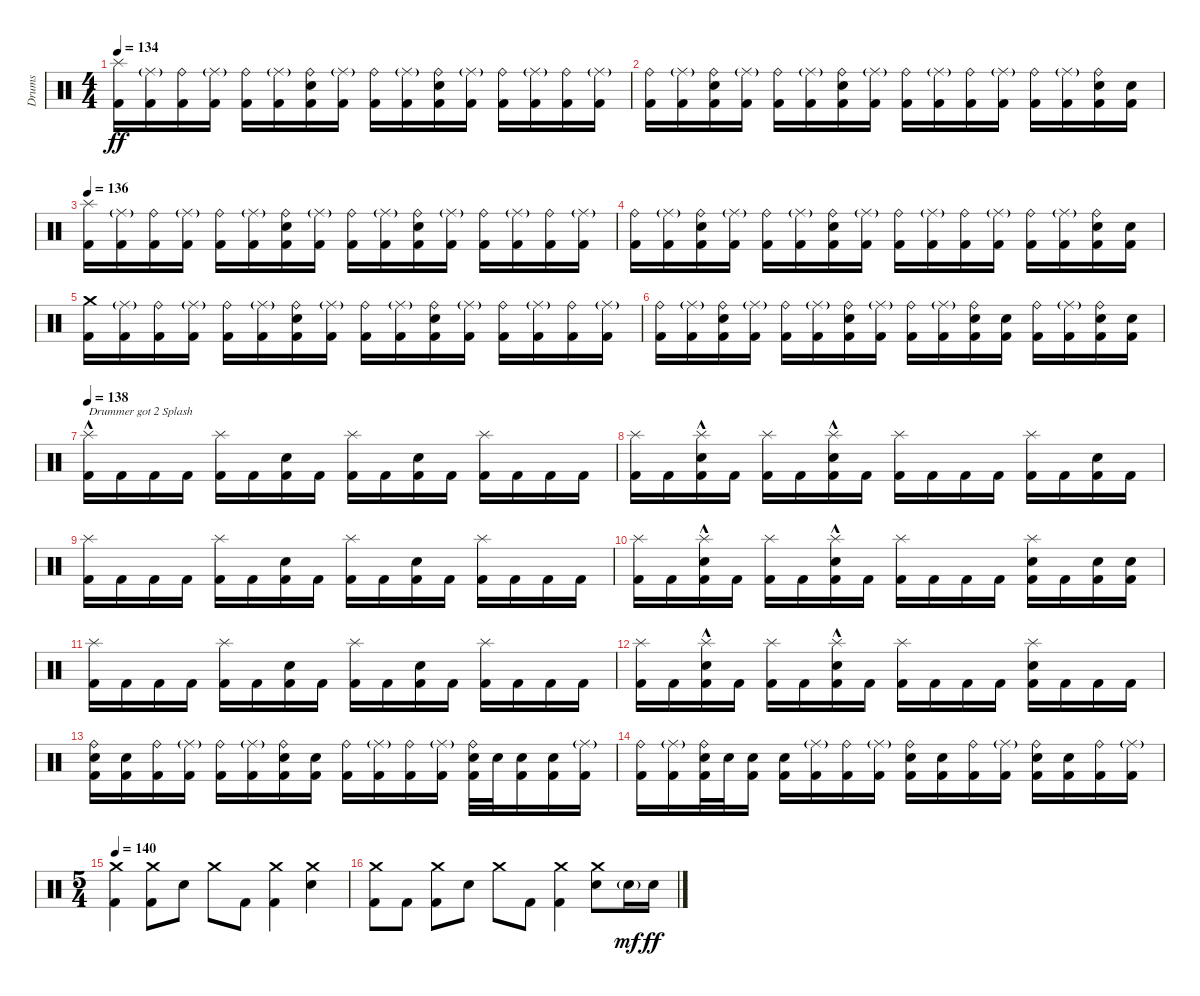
\track ("Drums" "Drums") {instrument percussion}
\staff {score}
\articulation defaults
\ts (4 4)
\tempo 134
\clef neutral
\ks c
("Splash (hit)" "Kick (hit) 2").16{dy ff} ("Ride (middle)"{g} "Kick (hit) 2").16 ("Ride (bell)" "Kick (hit) 2").16 ("Ride (middle)"{g} "Kick (hit) 2").16 ("Ride (bell)" "Kick (hit) 2").16 ("Ride (middle)"{g} "Kick (hit) 2").16 ("Ride (bell)" "Electric Snare (hit)" "Kick (hit) 2").16 ("Ride (middle)"{g} "Kick (hit) 2").16 ("Ride (bell)" "Kick (hit) 2").16 ("Ride (middle)"{g} "Kick (hit) 2").16 ("Ride (bell)" "Electric Snare (hit)" "Kick (hit) 2").16 ("Ride (middle)"{g} "Kick (hit) 2").16 ("Ride (bell)" "Kick (hit) 2").16 ("Ride (middle)"{g} "Kick (hit) 2").16 ("Ride (bell)" "Kick (hit) 2").16 ("Ride (middle)"{g} "Kick (hit) 2").16 |
("Ride (bell)" "Kick (hit) 2").16 ("Ride (middle)"{g} "Kick (hit) 2").16 ("Ride (bell)" "Electric Snare (hit)" "Kick (hit) 2").16 ("Ride (middle)"{g} "Kick (hit) 2").16 ("Ride (bell)" "Kick (hit) 2").16 ("Ride (middle)"{g} "Kick (hit) 2").16 ("Ride (bell)" "Electric Snare (hit)" "Kick (hit) 2").16 ("Ride (middle)"{g} "Kick (hit) 2").16 ("Ride (bell)" "Kick (hit) 2").16 ("Ride (middle)"{g} "Kick (hit) 2").16 ("Ride (bell)" "Kick (hit) 2").16 ("Ride (middle)"{g} "Kick (hit) 2").16 ("Ride (bell)" "Kick (hit) 2").16 ("Ride (middle)"{g} "Kick (hit) 2").16 ("Ride (bell)" "Electric Snare (hit)" "Kick (hit) 2").16 ("Electric Snare (hit)" "Kick (hit) 2").16 |
\tempo 136
("Splash (hit)" "Kick (hit) 2").16 ("Ride (middle)"{g} "Kick (hit) 2").16 ("Ride (bell)" "Kick (hit) 2").16 ("Ride (middle)"{g} "Kick (hit) 2").16 ("Ride (bell)" "Kick (hit) 2").16 ("Ride (middle)"{g} "Kick (hit) 2").16 ("Ride (bell)" "Electric Snare (hit)" "Kick (hit) 2").16 ("Ride (middle)"{g} "Kick (hit) 2").16 ("Ride (bell)" "Kick (hit) 2").16 ("Ride (middle)"{g} "Kick (hit) 2").16 ("Ride (bell)" "Electric Snare (hit)" "Kick (hit) 2").16 ("Ride (middle)"{g} "Kick (hit) 2").16 ("Ride (bell)" "Kick (hit) 2").16 ("Ride (middle)"{g} "Kick (hit) 2").16 ("Ride (bell)" "Kick (hit) 2").16 ("Ride (middle)"{g} "Kick (hit) 2").16 |
("Ride (bell)" "Kick (hit) 2").16 ("Ride (middle)"{g} "Kick (hit) 2").16 ("Ride (bell)" "Electric Snare (hit)" "Kick (hit) 2").16 ("Ride (middle)"{g} "Kick (hit) 2").16 ("Ride (bell)" "Kick (hit) 2").16 ("Ride (middle)"{g} "Kick (hit) 2").16 ("Ride (bell)" "Electric Snare (hit)" "Kick (hit) 2").16 ("Ride (middle)"{g} "Kick (hit) 2").16 ("Ride (bell)" "Kick (hit) 2").16 ("Ride (middle)"{g} "Kick (hit) 2").16 ("Ride (bell)" "Kick (hit) 2").16 ("Ride (middle)"{g} "Kick (hit) 2").16 ("Ride (bell)" "Kick (hit) 2").16 ("Ride (middle)"{g} "Kick (hit) 2").16 ("Ride (bell)" "Electric Snare (hit)" "Kick (hit) 2").16 ("Electric Snare (hit)" "Kick (hit) 2").16 |
("Crash medium (hit)" "Kick (hit) 2").16 ("Ride (middle)"{g} "Kick (hit) 2").16 ("Ride (bell)" "Kick (hit) 2").16 ("Ride (middle)"{g} "Kick (hit) 2").16 ("Ride (bell)" "Kick (hit) 2").16 ("Ride (middle)"{g} "Kick (hit) 2").16 ("Ride (bell)" "Electric Snare (hit)" "Kick (hit) 2").16 ("Ride (middle)"{g} "Kick (hit) 2").16 ("Ride (bell)" "Kick (hit) 2").16 ("Ride (middle)"{g} "Kick (hit) 2").16 ("Ride (bell)" "Electric Snare (hit)" "Kick (hit) 2").16 ("Ride (middle)"{g} "Kick (hit) 2").16 ("Ride (bell)" "Kick (hit) 2").16 ("Ride (middle)"{g} "Kick (hit) 2").16 ("Ride (bell)" "Kick (hit) 2").16 ("Ride (middle)"{g} "Kick (hit) 2").16 |
("Ride (bell)" "Kick (hit) 2").16 ("Ride (middle)"{g} "Kick (hit) 2").16 ("Ride (bell)" "Electric Snare (hit)" "Kick (hit) 2").16 ("Ride (middle)"{g} "Kick (hit) 2").16 ("Ride (bell)" "Kick (hit) 2").16 ("Ride (middle)"{g} "Kick (hit) 2").16 ("Ride (bell)" "Electric Snare (hit)" "Kick (hit) 2").16 ("Ride (middle)"{g} "Kick (hit) 2").16 ("Ride (bell)" "Kick (hit) 2").16 ("Ride (middle)"{g} "Kick (hit) 2").16 ("Ride (bell)" "Electric Snare (hit)" "Kick (hit) 2").16 ("Electric Snare (hit)" "Kick (hit) 2").16 ("Ride (bell)" "Kick (hit) 2").16 ("Ride (middle)"{g} "Kick (hit) 2").16 ("Ride (bell)" "Electric Snare (hit)" "Kick (hit) 2").16 ("Electric Snare (hit)" "Kick (hit) 2").16 |
\tempo 138
("Splash (hit)"{hac} "Kick (hit) 2").16{txt "Drummer got 2 Splash"} "Kick (hit) 2".16 "Kick (hit) 2".16 "Kick (hit) 2".16 ("Splash (hit)" "Kick (hit) 2").16 "Kick (hit) 2".16 ("Electric Snare (hit)" "Kick (hit) 2").16 "Kick (hit) 2".16 ("Splash (hit)" "Kick (hit) 2").16 "Kick (hit) 2".16 ("Electric Snare (hit)" "Kick (hit) 2").16 "Kick (hit) 2".16 ("Splash (hit)" "Kick (hit) 2").16 "Kick (hit) 2".16 "Kick (hit) 2".16 "Kick (hit) 2".16 |
("Splash (hit)" "Kick (hit) 2").16 "Kick (hit) 2".16 ("Splash (hit)"{hac} "Electric Snare (hit)" "Kick (hit) 2").16 "Kick (hit) 2".16 ("Splash (hit)" "Kick (hit) 2").16 "Kick (hit) 2".16 ("Splash (hit)"{hac} "Electric Snare (hit)" "Kick (hit) 2").16 "Kick (hit) 2".16 ("Splash (hit)" "Kick (hit) 2").16 "Kick (hit) 2".16 "Kick (hit) 2".16 "Kick (hit) 2".16 ("Splash (hit)" "Kick (hit) 2").16 "Kick (hit) 2".16 ("Electric Snare (hit)" "Kick (hit) 2").16 "Kick (hit) 2".16 |
("Splash (hit)" "Kick (hit) 2").16 "Kick (hit) 2".16 "Kick (hit) 2".16 "Kick (hit) 2".16 ("Splash (hit)" "Kick (hit) 2").16 "Kick (hit) 2".16 ("Electric Snare (hit)" "Kick (hit) 2").16 "Kick (hit) 2".16 ("Splash (hit)" "Kick (hit) 2").16 "Kick (hit) 2".16 ("Electric Snare (hit)" "Kick (hit) 2").16 "Kick (hit) 2".16 ("Splash (hit)" "Kick (hit) 2").16 "Kick (hit) 2".16 "Kick (hit) 2".16 "Kick (hit) 2".16 |
("Splash (hit)" "Kick (hit) 2").16 "Kick (hit) 2".16 ("Splash (hit)"{hac} "Electric Snare (hit)" "Kick (hit) 2").16 "Kick (hit) 2".16 ("Splash (hit)" "Kick (hit) 2").16 "Kick (hit) 2".16 ("Splash (hit)"{hac} "Electric Snare (hit)" "Kick (hit) 2").16 "Kick (hit) 2".16 ("Splash (hit)" "Kick (hit) 2").16 "Kick (hit) 2".16 "Kick (hit) 2".16 "Kick (hit) 2".16 ("Splash (hit)" "Electric Snare (hit)" "Kick (hit) 2").16 "Kick (hit) 2".16 ("Electric Snare (hit)" "Kick (hit) 2").16 ("Electric Snare (hit)" "Kick (hit) 2").16 |
("Splash (hit)" "Kick (hit) 2").16 "Kick (hit) 2".16 "Kick (hit) 2".16 "Kick (hit) 2".16 ("Splash (hit)" "Kick (hit) 2").16 "Kick (hit) 2".16 ("Electric Snare (hit)" "Kick (hit) 2").16 "Kick (hit) 2".16 ("Splash (hit)" "Kick (hit) 2").16 "Kick (hit) 2".16 ("Electric Snare (hit)" "Kick (hit) 2").16 "Kick (hit) 2".16 ("Splash (hit)" "Kick (hit) 2").16 "Kick (hit) 2".16 "Kick (hit) 2".16 "Kick (hit) 2".16 |
("Splash (hit)" "Kick (hit) 2").16 "Kick (hit) 2".16 ("Splash (hit)"{hac} "Electric Snare (hit)" "Kick (hit) 2").16 "Kick (hit) 2".16 ("Splash (hit)" "Kick (hit) 2").16 "Kick (hit) 2".16 ("Splash (hit)"{hac} "Electric Snare (hit)" "Kick (hit) 2").16 "Kick (hit) 2".16 ("Splash (hit)" "Kick (hit) 2").16 "Kick (hit) 2".16 "Kick (hit) 2".16 "Kick (hit) 2".16 ("Splash (hit)" "Electric Snare (hit)" "Kick (hit) 2").16 "Kick (hit) 2".16 "Kick (hit) 2".16 "Kick (hit) 2".16 |
("Ride (bell)" "Electric Snare (hit)" "Kick (hit) 2").16 ("Electric Snare (hit)" "Kick (hit) 2").16 ("Ride (bell)" "Kick (hit) 2").16 ("Ride (middle)"{g} "Kick (hit) 2").16 ("Ride (bell)" "Kick (hit) 2").16 ("Ride (middle)"{g} "Kick (hit) 2").16 ("Ride (bell)" "Electric Snare (hit)" "Kick (hit) 2").16 ("Electric Snare (hit)" "Kick (hit) 2").16 ("Ride (bell)" "Kick (hit) 2").16 ("Ride (middle)"{g} "Kick (hit) 2").16 ("Ride (bell)" "Kick (hit) 2").16 ("Ride (middle)"{g} "Kick (hit) 2").16 ("Ride (bell)" "Electric Snare (hit)" "Kick (hit) 2").32 "Electric Snare (hit)".32 ("Electric Snare (hit)" "Kick (hit) 2").16 ("Electric Snare (hit)" "Kick (hit) 2").16 ("Ride (middle)"{g} "Kick (hit) 2").16 |
("Ride (bell)" "Kick (hit) 2").16 ("Ride (middle)"{g} "Kick (hit) 2").16 ("Ride (bell)" "Electric Snare (hit)" "Kick (hit) 2").32 "Electric Snare (hit)".32 ("Electric Snare (hit)" "Kick (hit) 2").16 ("Electric Snare (hit)" "Kick (hit) 2").16 ("Ride (middle)"{g} "Kick (hit) 2").16 ("Ride (bell)" "Kick (hit) 2").16 ("Ride (middle)"{g} "Kick (hit) 2").16 ("Ride (bell)" "Electric Snare (hit)" "Kick (hit) 2").16 ("Electric Snare (hit)" "Kick (hit) 2").16 ("Ride (bell)" "Kick (hit) 2").16 ("Ride (middle)"{g} "Kick (hit) 2").16 ("Ride (bell)" "Electric Snare (hit)" "Kick (hit) 2").16 ("Electric Snare (hit)" "Kick (hit) 2").16 ("Ride (bell)" "Kick (hit) 2").16 ("Ride (middle)"{g} "Kick (hit) 2").16 |
\ts (5 4)
\tempo 140
("Crash medium (hit)" "Kick (hit) 2").4 ("Crash medium (hit)" "Kick (hit) 2").8 "Electric Snare (hit)".8 "Crash medium (hit)".8 "Kick (hit) 2".8 ("Crash medium (hit)" "Kick (hit) 2").4 ("Crash medium (hit)" "Electric Snare (hit)").4 |
("Crash medium (hit)" "Kick (hit) 2").8 "Kick (hit) 2".8 ("Crash medium (hit)" "Kick (hit) 2").8 "Electric Snare (hit)".8 "Crash medium (hit)".8 "Kick (hit) 2".8 ("Crash medium (hit)" "Kick (hit) 2").4 ("Crash medium (hit)" "Electric Snare (hit)").8 "Electric Snare (hit)"{g}.16{dy mf} "Electric Snare (hit)".16{dy ff}
